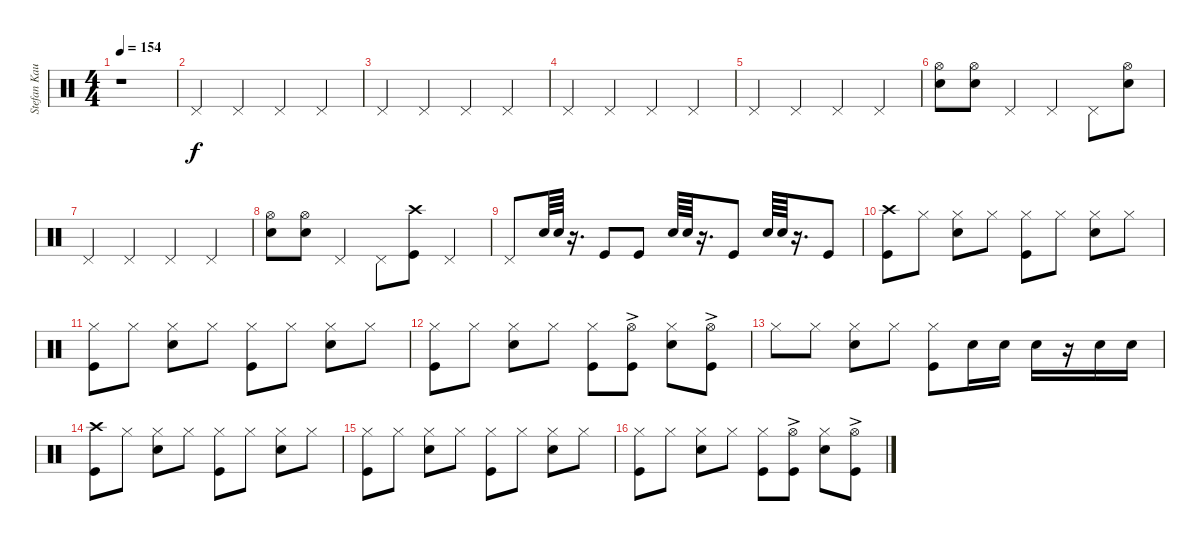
\track ("Stefan Kaufmann" "Stefan Kau") {instrument percussion}
\staff {score}
\articulation defaults
\ts (4 4)
\tempo 154
\clef neutral
\ks c
r.1{dy f} |
"Pedal Hi-Hat (hit)".4 "Pedal Hi-Hat (hit)".4 "Pedal Hi-Hat (hit)".4 "Pedal Hi-Hat (hit)".4 |
"Pedal Hi-Hat (hit)".4 "Pedal Hi-Hat (hit)".4 "Pedal Hi-Hat (hit)".4 "Pedal Hi-Hat (hit)".4 |
"Pedal Hi-Hat (hit)".4 "Pedal Hi-Hat (hit)".4 "Pedal Hi-Hat (hit)".4 "Pedal Hi-Hat (hit)".4 |
"Pedal Hi-Hat (hit)".4 "Pedal Hi-Hat (hit)".4 "Pedal Hi-Hat (hit)".4 "Pedal Hi-Hat (hit)".4 |
("Hi-Hat (open)" "Snare (hit) 2").8 ("Hi-Hat (open)" "Snare (hit) 2").8 "Pedal Hi-Hat (hit)".4 "Pedal Hi-Hat (hit)".4 "Pedal Hi-Hat (hit)".8 ("Hi-Hat (open)" "Snare (hit) 2").8 |
"Pedal Hi-Hat (hit)".4 "Pedal Hi-Hat (hit)".4 "Pedal Hi-Hat (hit)".4 "Pedal Hi-Hat (hit)".4 |
("Hi-Hat (open)" "Snare (hit) 2").8 ("Hi-Hat (open)" "Snare (hit) 2").8 "Pedal Hi-Hat (hit)".4 "Pedal Hi-Hat (hit)".8 ("Crash high (hit)" "Kick (hit)").8 "Pedal Hi-Hat (hit)".4 |
"Pedal Hi-Hat (hit)".8 "Snare (hit) 2".64 "Snare (hit) 2".64 r.16{d} "Kick (hit)".8 "Kick (hit)".8 "Snare (hit) 2".64 "Snare (hit) 2".64 r.16{d} "Kick (hit)".8 "Snare (hit) 2".64 "Snare (hit) 2".64 r.16{d} "Kick (hit)".8 |
("Crash high (hit)" "Kick (hit)").8 "Hi-Hat (closed)".8 ("Hi-Hat (closed)" "Snare (hit) 2").8 "Hi-Hat (closed)".8 ("Hi-Hat (closed)" "Kick (hit)").8 "Hi-Hat (closed)".8 ("Hi-Hat (closed)" "Snare (hit) 2").8 "Hi-Hat (closed)".8 |
("Hi-Hat (closed)" "Kick (hit)").8 "Hi-Hat (closed)".8 ("Hi-Hat (closed)" "Snare (hit) 2").8 "Hi-Hat (closed)".8 ("Hi-Hat (closed)" "Kick (hit)").8 "Hi-Hat (closed)".8 ("Hi-Hat (closed)" "Snare (hit) 2").8 "Hi-Hat (closed)".8 |
("Hi-Hat (closed)" "Kick (hit)").8 "Hi-Hat (closed)".8 ("Hi-Hat (closed)" "Snare (hit) 2").8 "Hi-Hat (closed)".8 ("Hi-Hat (closed)" "Kick (hit)").8 ("Hi-Hat (open)"{ac} "Kick (hit)").8 ("Hi-Hat (closed)" "Snare (hit) 2").8 ("Hi-Hat (open)"{ac} "Kick (hit)").8 |
"Hi-Hat (closed)".8 "Hi-Hat (closed)".8 ("Hi-Hat (closed)" "Snare (hit) 2").8 "Hi-Hat (closed)".8 ("Hi-Hat (closed)" "Kick (hit)").8 "Snare (hit) 2".16 "Snare (hit) 2".16 "Snare (hit) 2".16 r.16 "Snare (hit) 2".16 "Snare (hit) 2".16 |
("Crash high (hit)" "Kick (hit)").8 "Hi-Hat (closed)".8 ("Hi-Hat (closed)" "Snare (hit) 2").8 "Hi-Hat (closed)".8 ("Hi-Hat (closed)" "Kick (hit)").8 "Hi-Hat (closed)".8 ("Hi-Hat (closed)" "Snare (hit) 2").8 "Hi-Hat (closed)".8 |
("Hi-Hat (closed)" "Kick (hit)").8 "Hi-Hat (closed)".8 ("Hi-Hat (closed)" "Snare (hit) 2").8 "Hi-Hat (closed)".8 ("Hi-Hat (closed)" "Kick (hit)").8 "Hi-Hat (closed)".8 ("Hi-Hat (closed)" "Snare (hit) 2").8 "Hi-Hat (closed)".8 |
("Hi-Hat (closed)" "Kick (hit)").8 "Hi-Hat (closed)".8 ("Hi-Hat (closed)" "Snare (hit) 2").8 "Hi-Hat (closed)".8 ("Hi-Hat (closed)" "Kick (hit)").8 ("Hi-Hat (open)"{ac} "Kick (hit)").8 ("Hi-Hat (closed)" "Snare (hit) 2").8 ("Hi-Hat (open)"{ac} "Kick (hit)").8
